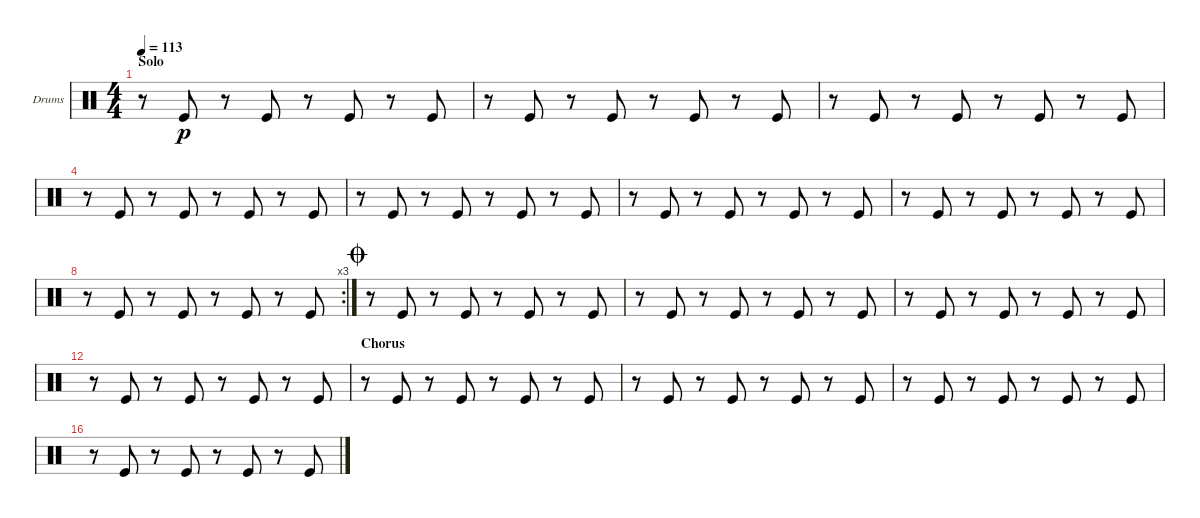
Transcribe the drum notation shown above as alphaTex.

\bracketExtendMode nobrackets
\firstSystemTrackNameOrientation horizontal
\otherSystemsTrackNameOrientation horizontal
\defaultBarNumberDisplay FirstOfSystem
\track ("Drumkit" "Drums") {solo instrument percussion}
\staff {score}
\articulation defaults
\ts (4 4)
\section ("" "Solo")
\tempo 113
\clef neutral
\scale
0.25
\ks c
r.8{dy p} "Kick (hit)".8 r.8 "Kick (hit)".8 r.8 "Kick (hit)".8 r.8 "Kick (hit)".8 |
\scale
0.25 r.8 "Kick (hit)".8 r.8 "Kick (hit)".8 r.8 "Kick (hit)".8 r.8 "Kick (hit)".8 |
\scale
0.25 r.8 "Kick (hit)".8 r.8 "Kick (hit)".8 r.8 "Kick (hit)".8 r.8 "Kick (hit)".8 |
\scale
0.25 r.8 "Kick (hit)".8 r.8 "Kick (hit)".8 r.8 "Kick (hit)".8 r.8 "Kick (hit)".8 |
\scale
0.25 r.8 "Kick (hit)".8 r.8 "Kick (hit)".8 r.8 "Kick (hit)".8 r.8 "Kick (hit)".8 |
\scale
0.25 r.8 "Kick (hit)".8 r.8 "Kick (hit)".8 r.8 "Kick (hit)".8 r.8 "Kick (hit)".8 |
\scale
0.25 r.8 "Kick (hit)".8 r.8 "Kick (hit)".8 r.8 "Kick (hit)".8 r.8 "Kick (hit)".8 |
\rc 3
\scale
0.25 r.8 "Kick (hit)".8 r.8 "Kick (hit)".8 r.8 "Kick (hit)".8 r.8 "Kick (hit)".8 |
\jump coda
r.8 "Kick (hit)".8 r.8 "Kick (hit)".8 r.8 "Kick (hit)".8 r.8 "Kick (hit)".8 |
r.8 "Kick (hit)".8 r.8 "Kick (hit)".8 r.8 "Kick (hit)".8 r.8 "Kick (hit)".8 |
r.8 "Kick (hit)".8 r.8 "Kick (hit)".8 r.8 "Kick (hit)".8 r.8 "Kick (hit)".8 |
r.8 "Kick (hit)".8 r.8 "Kick (hit)".8 r.8 "Kick (hit)".8 r.8 "Kick (hit)".8 |
\section ("" "Chorus")
r.8 "Kick (hit)".8 r.8 "Kick (hit)".8 r.8 "Kick (hit)".8 r.8 "Kick (hit)".8 |
r.8 "Kick (hit)".8 r.8 "Kick (hit)".8 r.8 "Kick (hit)".8 r.8 "Kick (hit)".8 |
r.8 "Kick (hit)".8 r.8 "Kick (hit)".8 r.8 "Kick (hit)".8 r.8 "Kick (hit)".8 |
r.8 "Kick (hit)".8 r.8 "Kick (hit)".8 r.8 "Kick (hit)".8 r.8 "Kick (hit)".8
